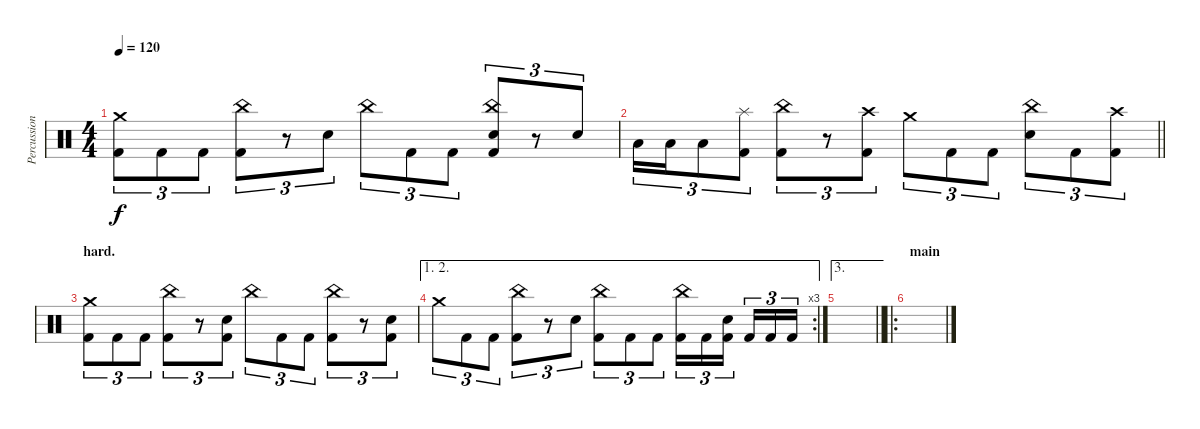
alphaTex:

\track ("Percussion" "Percussion") {instrument percussion}
\staff {score}
\articulation defaults
\ts (4 4)
\tempo 120
\clef neutral
\ks c
("Crash medium (hit)" "Kick (hit) 2").8{tu (3 2) dy f} "Kick (hit) 2".8{tu (3 2)} "Kick (hit) 2".8{tu (3 2)} ("China (hit)" "Kick (hit) 2").8{tu (3 2)} r.8{tu (3 2)} "Snare (hit) 2".8{tu (3 2)} "China (hit)".8{tu (3 2)} "Kick (hit) 2".8{tu (3 2)} "Kick (hit) 2".8{tu (3 2)} ("China (hit)" "Snare (hit) 2" "Kick (hit) 2").8{tu (3 2)} r.8{tu (3 2)} "Snare (hit) 2".8{tu (3 2)} |
\barLineRight lightlight "Low Tom (hit)".16{tu (3 2)} "Low Tom (hit)".16{tu (3 2)} "Low Tom (hit)".8{tu (3 2)}
("Splash (hit)" "Kick (hit) 2").8{tu (3 2)} ("China (hit)" "Kick (hit) 2").8{tu (3 2)} r.8{tu (3 2)} ("Crash high (hit)" "Kick (hit) 2").8{tu (3 2)} "Crash medium (hit)".8{tu (3 2)} "Kick (hit) 2".8{tu (3 2)} "Kick (hit) 2".8{tu (3 2)} ("China (hit)" "Snare (hit) 2").8{tu (3 2)} "Kick (hit) 2".8{tu (3 2)} ("Crash high (hit)" "Kick (hit) 2").8{tu (3 2)} |
\section ("" "hard.")
("Crash medium (hit)" "Kick (hit) 2").8{tu (3 2)} "Kick (hit) 2".8{tu (3 2)} "Kick (hit) 2".8{tu (3 2)} ("China (hit)" "Kick (hit) 2").8{tu (3 2)} r.8{tu (3 2)} ("Snare (hit) 2" "Kick (hit) 2").8{tu (3 2)} "China (hit)".8{tu (3 2)} "Kick (hit) 2".8{tu (3 2)} "Kick (hit) 2".8{tu (3 2)} ("China (hit)" "Kick (hit) 2").8{tu (3 2)} r.8{tu (3 2)} ("Snare (hit) 2" "Kick (hit) 2").8{tu (3 2)} |
\ae (1 2)
\rc 3 "Crash medium (hit)".8{tu (3 2)} "Kick (hit) 2".8{tu (3 2)} "Kick (hit) 2".8{tu (3 2)}
("China (hit)" "Kick (hit) 2").8{tu (3 2)} r.8{tu (3 2)} "Snare (hit) 2".8{tu (3 2)} ("China (hit)" "Kick (hit) 2").8{tu (3 2)} "Kick (hit) 2".8{tu (3 2)} "Kick (hit) 2".8{tu (3 2)} ("China (hit)" "Kick (hit) 2").16{tu (3 2)} "Kick (hit) 2".16{tu (3 2)} ("Snare (hit) 2" "Kick (hit) 2").16{tu (3 2) beam splitsecondary} "Kick (hit) 2".16{tu (3 2)} "Kick (hit) 2".16{tu (3 2)} "Kick (hit) 2".16{tu (3 2)} |
\ae 3
\barLineRight lightlight
|
\ro
\section ("" "main")
